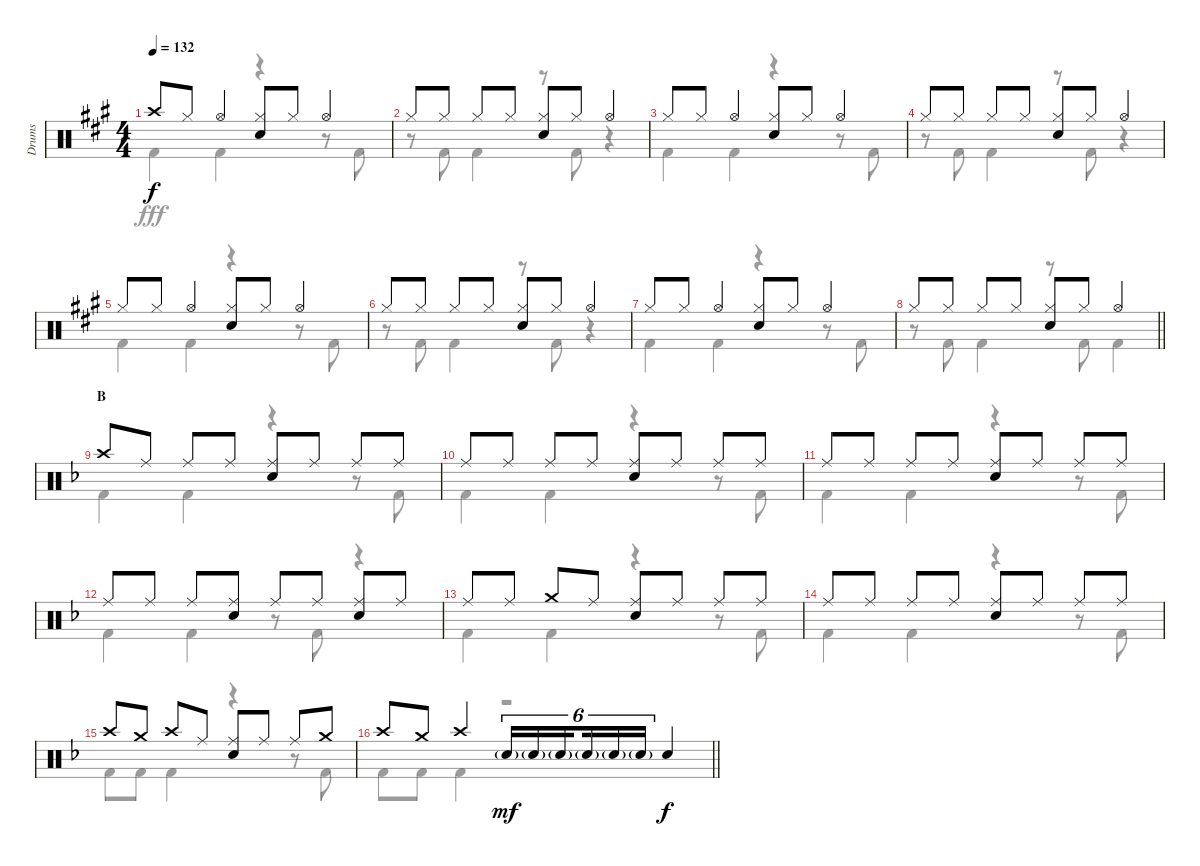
\track ("Drums" "Drums") {instrument percussion}
\staff {score}
\articulation defaults
\voice
\ts (4 4)
\tempo 132
\clef neutral
\ks a "Crash high (hit)".8{dy f} "Hi-Hat (closed)".8 "Hi-Hat (open)".4
("Hi-Hat (closed)" "Snare (hit) 2").8 "Hi-Hat (closed)".8 "Hi-Hat (open)".4 |
"Hi-Hat (closed)".8 "Hi-Hat (closed)".8 "Hi-Hat (closed)".8 "Hi-Hat (closed)".8 ("Hi-Hat (closed)" "Snare (hit) 2").8 "Hi-Hat (closed)".8 "Hi-Hat (open)".4 |
"Hi-Hat (closed)".8 "Hi-Hat (closed)".8 "Hi-Hat (open)".4 ("Hi-Hat (closed)" "Snare (hit) 2").8 "Hi-Hat (closed)".8 "Hi-Hat (open)".4 |
"Hi-Hat (closed)".8 "Hi-Hat (closed)".8 "Hi-Hat (closed)".8 "Hi-Hat (closed)".8 ("Hi-Hat (closed)" "Snare (hit) 2").8 "Hi-Hat (closed)".8 "Hi-Hat (open)".4 |
"Hi-Hat (closed)".8 "Hi-Hat (closed)".8 "Hi-Hat (open)".4 ("Hi-Hat (closed)" "Snare (hit) 2").8 "Hi-Hat (closed)".8 "Hi-Hat (open)".4 |
"Hi-Hat (closed)".8 "Hi-Hat (closed)".8 "Hi-Hat (closed)".8 "Hi-Hat (closed)".8 ("Hi-Hat (closed)" "Snare (hit) 2").8 "Hi-Hat (closed)".8 "Hi-Hat (open)".4 |
"Hi-Hat (closed)".8 "Hi-Hat (closed)".8 "Hi-Hat (open)".4 ("Hi-Hat (closed)" "Snare (hit) 2").8 "Hi-Hat (closed)".8 "Hi-Hat (open)".4 |
\barLineRight lightlight "Hi-Hat (closed)".8 "Hi-Hat (closed)".8 "Hi-Hat (closed)".8 "Hi-Hat (closed)".8
("Hi-Hat (closed)" "Snare (hit) 2").8 "Hi-Hat (closed)".8 "Hi-Hat (open)".4 |
\section ("" "B")
\ks f "Crash high (hit)".8 "Ride (middle)".8 "Ride (middle)".8 "Ride (middle)".8
("Ride (middle)" "Snare (hit) 2").8 "Ride (middle)".8 "Ride (middle)".8 "Ride (middle)".8 |
"Ride (middle)".8 "Ride (middle)".8 "Ride (middle)".8 "Ride (middle)".8 ("Ride (middle)" "Snare (hit) 2").8 "Ride (middle)".8 "Ride (middle)".8 "Ride (middle)".8 |
"Ride (middle)".8 "Ride (middle)".8 "Ride (middle)".8 "Ride (middle)".8 ("Ride (middle)" "Snare (hit) 2").8 "Ride (middle)".8 "Ride (middle)".8 "Ride (middle)".8 |
"Ride (middle)".8 "Ride (middle)".8 "Ride (middle)".8 ("Ride (middle)" "Snare (hit) 2").8 "Ride (middle)".8 "Ride (middle)".8 ("Ride (middle)" "Snare (hit) 2").8 "Ride (middle)".8 |
"Ride (middle)".8 "Ride (middle)".8 "Crash medium (hit)".8 "Ride (middle)".8 ("Ride (middle)" "Snare (hit) 2").8 "Ride (middle)".8 "Ride (middle)".8 "Ride (middle)".8 |
"Ride (middle)".8 "Ride (middle)".8 "Ride (middle)".8 "Ride (middle)".8 ("Ride (middle)" "Snare (hit) 2").8 "Ride (middle)".8 "Ride (middle)".8 "Ride (middle)".8 |
"Crash high (hit)".8 "Crash medium (hit)".8 "Crash high (hit)".8 "Ride (middle)".8 ("Ride (middle)" "Snare (hit) 2").8 "Ride (middle)".8 "Ride (middle)".8 "Crash medium (hit)".8 |
\barLineRight lightlight "Crash high (hit)".8 "Crash medium (hit)".8 "Crash high (hit)".4 "Snare (hit) 2"{g}.16{tu (6 4) dy mf} "Snare (hit) 2"{g}.16{tu (6 4)} "Snare (hit) 2"{g}.16{tu (6 4) beam splitsecondary} "Snare (hit) 2"{g}.16{tu (6 4)} "Snare (hit) 2"{g}.16{tu (6 4)} "Snare (hit) 2"{g}.16{tu (6 4)} "Snare (hit) 2".4{dy f}
\voice
\clef neutral
\ottava regular
\simile none
\ks a "Kick (hit) 2".4{dy fff} "Kick (hit) 2".4
r.4 r.8 "Kick (hit) 2".8 |
r.8 "Kick (hit) 2".8 "Kick (hit) 2".4 r.8 "Kick (hit) 2".8 r.4 |
"Kick (hit) 2".4 "Kick (hit) 2".4 r.4 r.8 "Kick (hit) 2".8 |
r.8 "Kick (hit) 2".8 "Kick (hit) 2".4 r.8 "Kick (hit) 2".8 r.4 |
"Kick (hit) 2".4 "Kick (hit) 2".4 r.4 r.8 "Kick (hit) 2".8 |
r.8 "Kick (hit) 2".8 "Kick (hit) 2".4 r.8 "Kick (hit) 2".8 r.4 |
"Kick (hit) 2".4 "Kick (hit) 2".4 r.4 r.8 "Kick (hit) 2".8 |
\barLineRight lightlight
r.8 "Kick (hit) 2".8 "Kick (hit) 2".4 r.8 "Kick (hit) 2".8 "Kick (hit) 2".4 |
\ks f "Kick (hit) 2".4 "Kick (hit) 2".4
r.4 r.8 "Kick (hit) 2".8 |
"Kick (hit) 2".4 "Kick (hit) 2".4 r.4 r.8 "Kick (hit) 2".8 |
"Kick (hit) 2".4 "Kick (hit) 2".4 r.4 r.8 "Kick (hit) 2".8 |
"Kick (hit) 2".4 "Kick (hit) 2".4 r.8 "Kick (hit) 2".8 r.4 |
"Kick (hit) 2".4 "Kick (hit) 2".4 r.4 r.8 "Kick (hit) 2".8 |
"Kick (hit) 2".4 "Kick (hit) 2".4 r.4 r.8 "Kick (hit) 2".8 |
"Kick (hit) 2".8 "Kick (hit) 2".8 "Kick (hit) 2".4 r.4 r.8 "Kick (hit) 2".8 |
\barLineRight lightlight "Kick (hit) 2".8 "Kick (hit) 2".8 "Kick (hit) 2".4
r.2
